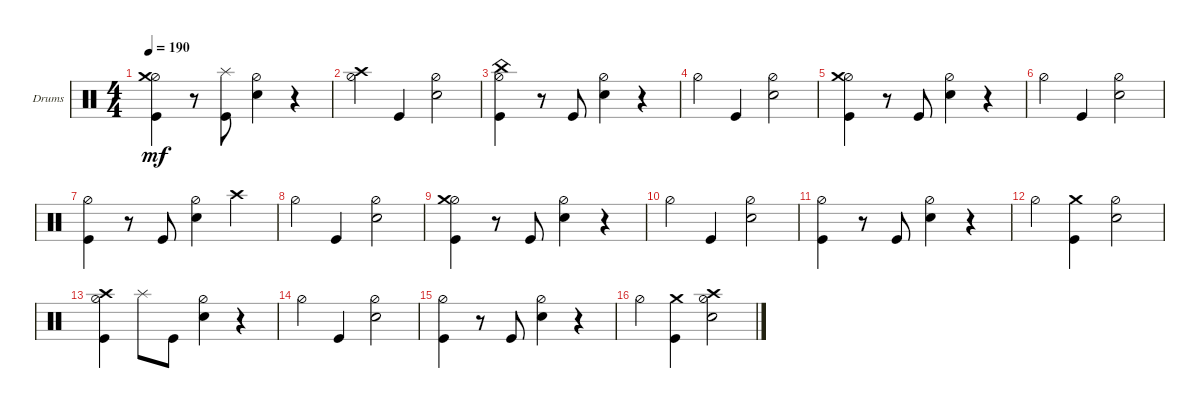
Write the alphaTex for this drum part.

\defaultSystemsLayout 4
\bracketExtendMode groupsimilarinstruments
\firstSystemTrackNameOrientation horizontal
\otherSystemsTrackNameOrientation horizontal
\track ("Drumkit" "Drums") {instrument percussion}
\staff {score}
\articulation defaults
\ts (4 4)
\tempo 190
\clef neutral
\ks c
("Hi-Hat (half)" "Kick (hit)" "Crash medium (hit)").4{dy mf} r.8 ("Kick (hit)" "Splash (hit)").8 ("Hi-Hat (half)" "Snare (hit) 2").4 r.4 |
("Hi-Hat (half)" "Crash high (hit)").4 "Kick (hit)".4 ("Snare (hit) 2" "Hi-Hat (half)").2 |
("Hi-Hat (half)" "Kick (hit)" "China (hit)").4 r.8 "Kick (hit)".8 ("Hi-Hat (half)" "Snare (hit) 2").4 r.4 |
"Hi-Hat (half)".4 "Kick (hit)".4 ("Snare (hit) 2" "Hi-Hat (half)").2 |
("Hi-Hat (half)" "Kick (hit)" "Crash medium (hit)").4 r.8 "Kick (hit)".8 ("Hi-Hat (half)" "Snare (hit) 2").4 r.4 |
"Hi-Hat (half)".4 "Kick (hit)".4 ("Snare (hit) 2" "Hi-Hat (half)").2 |
("Hi-Hat (half)" "Kick (hit)").4 r.8 "Kick (hit)".8 ("Hi-Hat (half)" "Snare (hit) 2").4 "Crash high (hit)".4 |
"Hi-Hat (half)".4 "Kick (hit)".4 ("Snare (hit) 2" "Hi-Hat (half)").2 |
("Hi-Hat (half)" "Kick (hit)" "Crash medium (hit)").4 r.8 "Kick (hit)".8 ("Hi-Hat (half)" "Snare (hit) 2").4 r.4 |
"Hi-Hat (half)".4 "Kick (hit)".4 ("Snare (hit) 2" "Hi-Hat (half)").2 |
("Hi-Hat (half)" "Kick (hit)").4 r.8 "Kick (hit)".8 ("Hi-Hat (half)" "Snare (hit) 2").4 r.4 |
"Hi-Hat (half)".4 ("Kick (hit)" "Crash medium (hit)").4 ("Snare (hit) 2" "Hi-Hat (half)").2 |
("Hi-Hat (half)" "Kick (hit)" "Crash high (hit)").4 "Splash (hit)".8 "Kick (hit)".8 ("Hi-Hat (half)" "Snare (hit) 2").4 r.4 |
"Hi-Hat (half)".4 "Kick (hit)".4 ("Snare (hit) 2" "Hi-Hat (half)").2 |
("Hi-Hat (half)" "Kick (hit)").4 r.8 "Kick (hit)".8 ("Hi-Hat (half)" "Snare (hit) 2").4 r.4 |
"Hi-Hat (half)".4 ("Kick (hit)" "Crash medium (hit)").4 ("Snare (hit) 2" "Hi-Hat (half)" "Crash high (hit)").2
